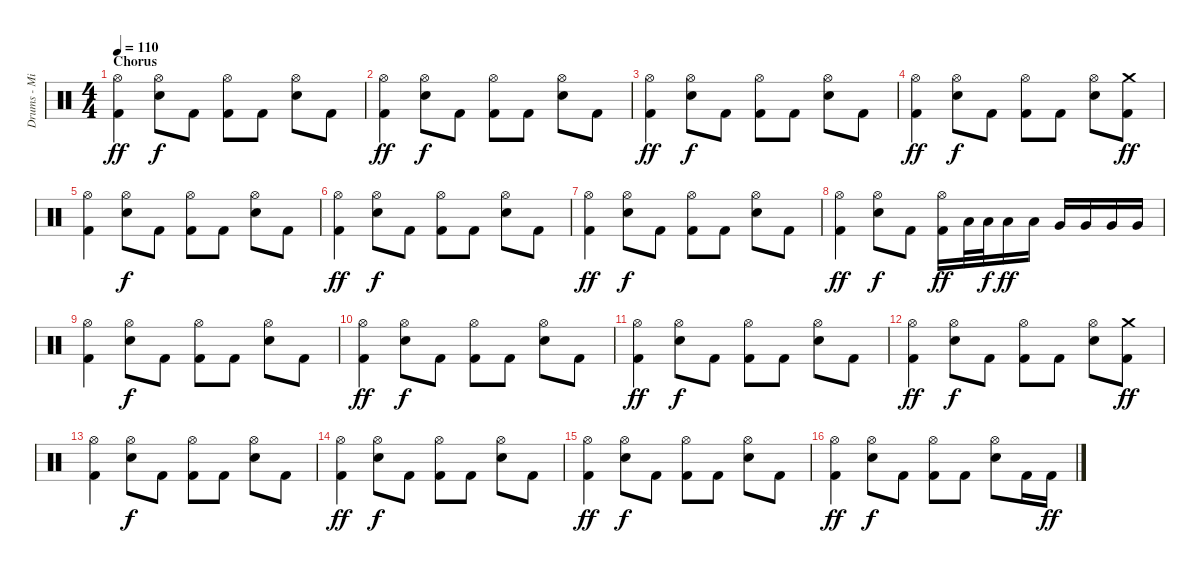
\track ("Drums - Mikko" "Drums - Mi") {instrument percussion}
\staff {score}
\articulation defaults
\ts (4 4)
\section ("" "Chorus")
\tempo 110
\clef neutral
\ks c
("Hi-Hat (open)" "Kick (hit) 2").4{dy ff} ("Hi-Hat (open)" "Snare (hit) 2").8{dy f} "Kick (hit) 2".8 ("Hi-Hat (open)" "Kick (hit) 2").8 "Kick (hit) 2".8 ("Hi-Hat (open)" "Snare (hit) 2").8 "Kick (hit) 2".8 |
("Hi-Hat (open)" "Kick (hit) 2").4{dy ff} ("Hi-Hat (open)" "Snare (hit) 2").8{dy f} "Kick (hit) 2".8 ("Hi-Hat (open)" "Kick (hit) 2").8 "Kick (hit) 2".8 ("Hi-Hat (open)" "Snare (hit) 2").8 "Kick (hit) 2".8 |
("Hi-Hat (open)" "Kick (hit) 2").4{dy ff} ("Hi-Hat (open)" "Snare (hit) 2").8{dy f} "Kick (hit) 2".8 ("Hi-Hat (open)" "Kick (hit) 2").8 "Kick (hit) 2".8 ("Hi-Hat (open)" "Snare (hit) 2").8 "Kick (hit) 2".8 |
("Hi-Hat (open)" "Kick (hit) 2").4{dy ff} ("Hi-Hat (open)" "Snare (hit) 2").8{dy f} "Kick (hit) 2".8 ("Hi-Hat (open)" "Kick (hit) 2").8 "Kick (hit) 2".8 ("Hi-Hat (open)" "Snare (hit) 2").8 ("Crash medium (hit)" "Kick (hit) 2").8{dy ff} |
("Hi-Hat (open)" "Kick (hit) 2").4 ("Hi-Hat (open)" "Snare (hit) 2").8{dy f} "Kick (hit) 2".8 ("Hi-Hat (open)" "Kick (hit) 2").8 "Kick (hit) 2".8 ("Hi-Hat (open)" "Snare (hit) 2").8 "Kick (hit) 2".8 |
("Hi-Hat (open)" "Kick (hit) 2").4{dy ff} ("Hi-Hat (open)" "Snare (hit) 2").8{dy f} "Kick (hit) 2".8 ("Hi-Hat (open)" "Kick (hit) 2").8 "Kick (hit) 2".8 ("Hi-Hat (open)" "Snare (hit) 2").8 "Kick (hit) 2".8 |
("Hi-Hat (open)" "Kick (hit) 2").4{dy ff} ("Hi-Hat (open)" "Snare (hit) 2").8{dy f} "Kick (hit) 2".8 ("Hi-Hat (open)" "Kick (hit) 2").8 "Kick (hit) 2".8 ("Hi-Hat (open)" "Snare (hit) 2").8 "Kick (hit) 2".8 |
("Hi-Hat (open)" "Kick (hit) 2").4{dy ff} ("Hi-Hat (open)" "Snare (hit) 2").8{dy f} "Kick (hit) 2".8 ("Hi-Hat (open)" "Kick (hit) 2").16{dy ff} "Low Tom (hit)".32 "Low Tom (hit)".32{dy f} "Low Tom (hit)".16{dy ff} "Low Tom (hit)".16 "Very Low Tom (hit)".16 "Very Low Tom (hit)".16 "Very Low Tom (hit)".16 "Very Low Tom (hit)".16 |
("Hi-Hat (open)" "Kick (hit) 2").4 ("Hi-Hat (open)" "Snare (hit) 2").8{dy f} "Kick (hit) 2".8 ("Hi-Hat (open)" "Kick (hit) 2").8 "Kick (hit) 2".8 ("Hi-Hat (open)" "Snare (hit) 2").8 "Kick (hit) 2".8 |
("Hi-Hat (open)" "Kick (hit) 2").4{dy ff} ("Hi-Hat (open)" "Snare (hit) 2").8{dy f} "Kick (hit) 2".8 ("Hi-Hat (open)" "Kick (hit) 2").8 "Kick (hit) 2".8 ("Hi-Hat (open)" "Snare (hit) 2").8 "Kick (hit) 2".8 |
("Hi-Hat (open)" "Kick (hit) 2").4{dy ff} ("Hi-Hat (open)" "Snare (hit) 2").8{dy f} "Kick (hit) 2".8 ("Hi-Hat (open)" "Kick (hit) 2").8 "Kick (hit) 2".8 ("Hi-Hat (open)" "Snare (hit) 2").8 "Kick (hit) 2".8 |
("Hi-Hat (open)" "Kick (hit) 2").4{dy ff} ("Hi-Hat (open)" "Snare (hit) 2").8{dy f} "Kick (hit) 2".8 ("Hi-Hat (open)" "Kick (hit) 2").8 "Kick (hit) 2".8 ("Hi-Hat (open)" "Snare (hit) 2").8 ("Crash medium (hit)" "Kick (hit) 2").8{dy ff} |
("Hi-Hat (open)" "Kick (hit) 2").4 ("Hi-Hat (open)" "Snare (hit) 2").8{dy f} "Kick (hit) 2".8 ("Hi-Hat (open)" "Kick (hit) 2").8 "Kick (hit) 2".8 ("Hi-Hat (open)" "Snare (hit) 2").8 "Kick (hit) 2".8 |
("Hi-Hat (open)" "Kick (hit) 2").4{dy ff} ("Hi-Hat (open)" "Snare (hit) 2").8{dy f} "Kick (hit) 2".8 ("Hi-Hat (open)" "Kick (hit) 2").8 "Kick (hit) 2".8 ("Hi-Hat (open)" "Snare (hit) 2").8 "Kick (hit) 2".8 |
("Hi-Hat (open)" "Kick (hit) 2").4{dy ff} ("Hi-Hat (open)" "Snare (hit) 2").8{dy f} "Kick (hit) 2".8 ("Hi-Hat (open)" "Kick (hit) 2").8 "Kick (hit) 2".8 ("Hi-Hat (open)" "Snare (hit) 2").8 "Kick (hit) 2".8 |
("Hi-Hat (open)" "Kick (hit) 2").4{dy ff} ("Hi-Hat (open)" "Snare (hit) 2").8{dy f} "Kick (hit) 2".8 ("Hi-Hat (open)" "Kick (hit) 2").8 "Kick (hit) 2".8 ("Hi-Hat (open)" "Snare (hit) 2").8 "Kick (hit) 2".16 "Kick (hit) 2".16{dy ff}
